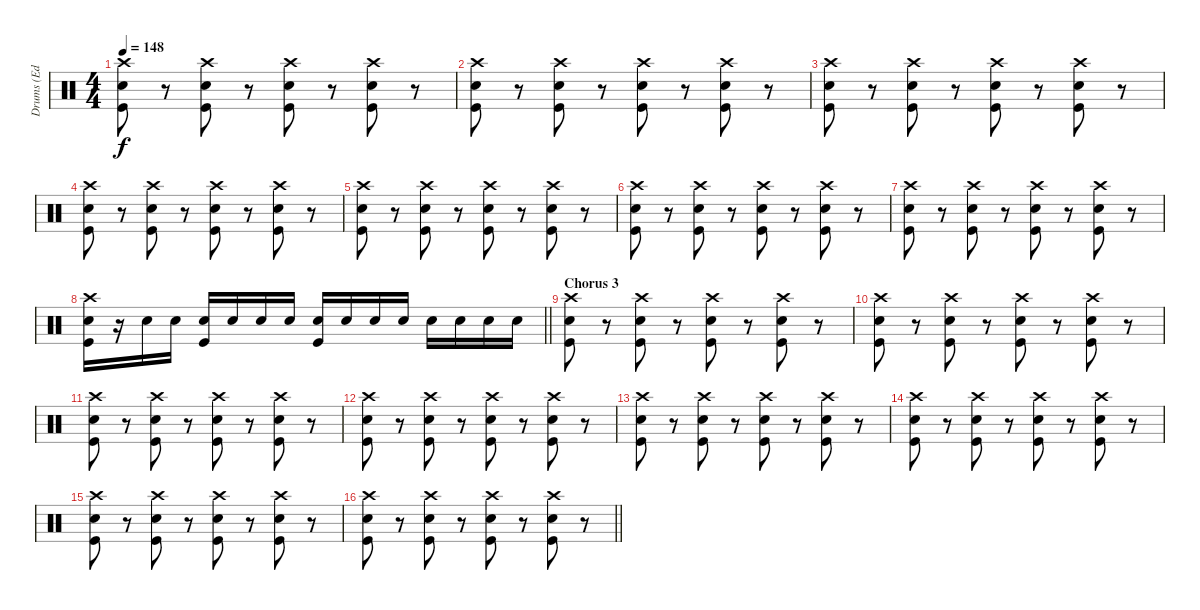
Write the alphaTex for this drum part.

\track ("Drums (Ed Lay)" "Drums (Ed ") {instrument percussion}
\staff {score}
\articulation defaults
\ts (4 4)
\tempo 148
\clef neutral
\ks c
("Crash high (hit)" "Electric Snare (hit)" "Kick (hit)").8{dy f} r.8 ("Crash high (hit)" "Electric Snare (hit)" "Kick (hit)").8 r.8 ("Crash high (hit)" "Electric Snare (hit)" "Kick (hit)").8 r.8 ("Crash high (hit)" "Electric Snare (hit)" "Kick (hit)").8 r.8 |
("Crash high (hit)" "Electric Snare (hit)" "Kick (hit)").8 r.8 ("Crash high (hit)" "Electric Snare (hit)" "Kick (hit)").8 r.8 ("Crash high (hit)" "Electric Snare (hit)" "Kick (hit)").8 r.8 ("Crash high (hit)" "Electric Snare (hit)" "Kick (hit)").8 r.8 |
("Crash high (hit)" "Electric Snare (hit)" "Kick (hit)").8 r.8 ("Crash high (hit)" "Electric Snare (hit)" "Kick (hit)").8 r.8 ("Crash high (hit)" "Electric Snare (hit)" "Kick (hit)").8 r.8 ("Crash high (hit)" "Electric Snare (hit)" "Kick (hit)").8 r.8 |
("Crash high (hit)" "Electric Snare (hit)" "Kick (hit)").8 r.8 ("Crash high (hit)" "Electric Snare (hit)" "Kick (hit)").8 r.8 ("Crash high (hit)" "Electric Snare (hit)" "Kick (hit)").8 r.8 ("Crash high (hit)" "Electric Snare (hit)" "Kick (hit)").8 r.8 |
("Crash high (hit)" "Electric Snare (hit)" "Kick (hit)").8 r.8 ("Crash high (hit)" "Electric Snare (hit)" "Kick (hit)").8 r.8 ("Crash high (hit)" "Electric Snare (hit)" "Kick (hit)").8 r.8 ("Crash high (hit)" "Electric Snare (hit)" "Kick (hit)").8 r.8 |
("Crash high (hit)" "Electric Snare (hit)" "Kick (hit)").8 r.8 ("Crash high (hit)" "Electric Snare (hit)" "Kick (hit)").8 r.8 ("Crash high (hit)" "Electric Snare (hit)" "Kick (hit)").8 r.8 ("Crash high (hit)" "Electric Snare (hit)" "Kick (hit)").8 r.8 |
("Crash high (hit)" "Electric Snare (hit)" "Kick (hit)").8 r.8 ("Crash high (hit)" "Electric Snare (hit)" "Kick (hit)").8 r.8 ("Crash high (hit)" "Electric Snare (hit)" "Kick (hit)").8 r.8 ("Crash high (hit)" "Electric Snare (hit)" "Kick (hit)").8 r.8 |
\barLineRight lightlight
("Crash high (hit)" "Electric Snare (hit)" "Kick (hit)").16 r.16 "Electric Snare (hit)".16 "Electric Snare (hit)".16 ("Electric Snare (hit)" "Kick (hit)").16 "Electric Snare (hit)".16 "Electric Snare (hit)".16 "Electric Snare (hit)".16 ("Electric Snare (hit)" "Kick (hit)").16 "Electric Snare (hit)".16 "Electric Snare (hit)".16 "Electric Snare (hit)".16 "Electric Snare (hit)".16 "Electric Snare (hit)".16 "Electric Snare (hit)".16 "Electric Snare (hit)".16 |
\section ("" "Chorus 3")
("Crash high (hit)" "Electric Snare (hit)" "Kick (hit)").8 r.8 ("Crash high (hit)" "Electric Snare (hit)" "Kick (hit)").8 r.8 ("Crash high (hit)" "Electric Snare (hit)" "Kick (hit)").8 r.8 ("Crash high (hit)" "Electric Snare (hit)" "Kick (hit)").8 r.8 |
("Crash high (hit)" "Electric Snare (hit)" "Kick (hit)").8 r.8 ("Crash high (hit)" "Electric Snare (hit)" "Kick (hit)").8 r.8 ("Crash high (hit)" "Electric Snare (hit)" "Kick (hit)").8 r.8 ("Crash high (hit)" "Electric Snare (hit)" "Kick (hit)").8 r.8 |
("Crash high (hit)" "Electric Snare (hit)" "Kick (hit)").8 r.8 ("Crash high (hit)" "Electric Snare (hit)" "Kick (hit)").8 r.8 ("Crash high (hit)" "Electric Snare (hit)" "Kick (hit)").8 r.8 ("Crash high (hit)" "Electric Snare (hit)" "Kick (hit)").8 r.8 |
("Crash high (hit)" "Electric Snare (hit)" "Kick (hit)").8 r.8 ("Crash high (hit)" "Electric Snare (hit)" "Kick (hit)").8 r.8 ("Crash high (hit)" "Electric Snare (hit)" "Kick (hit)").8 r.8 ("Crash high (hit)" "Electric Snare (hit)" "Kick (hit)").8 r.8 |
("Crash high (hit)" "Electric Snare (hit)" "Kick (hit)").8 r.8 ("Crash high (hit)" "Electric Snare (hit)" "Kick (hit)").8 r.8 ("Crash high (hit)" "Electric Snare (hit)" "Kick (hit)").8 r.8 ("Crash high (hit)" "Electric Snare (hit)" "Kick (hit)").8 r.8 |
("Crash high (hit)" "Electric Snare (hit)" "Kick (hit)").8 r.8 ("Crash high (hit)" "Electric Snare (hit)" "Kick (hit)").8 r.8 ("Crash high (hit)" "Electric Snare (hit)" "Kick (hit)").8 r.8 ("Crash high (hit)" "Electric Snare (hit)" "Kick (hit)").8 r.8 |
("Crash high (hit)" "Electric Snare (hit)" "Kick (hit)").8 r.8 ("Crash high (hit)" "Electric Snare (hit)" "Kick (hit)").8 r.8 ("Crash high (hit)" "Electric Snare (hit)" "Kick (hit)").8 r.8 ("Crash high (hit)" "Electric Snare (hit)" "Kick (hit)").8 r.8 |
\barLineRight lightlight
("Crash high (hit)" "Electric Snare (hit)" "Kick (hit)").8 r.8 ("Crash high (hit)" "Electric Snare (hit)" "Kick (hit)").8 r.8 ("Crash high (hit)" "Electric Snare (hit)" "Kick (hit)").8 r.8 ("Crash high (hit)" "Electric Snare (hit)" "Kick (hit)").8 r.8
